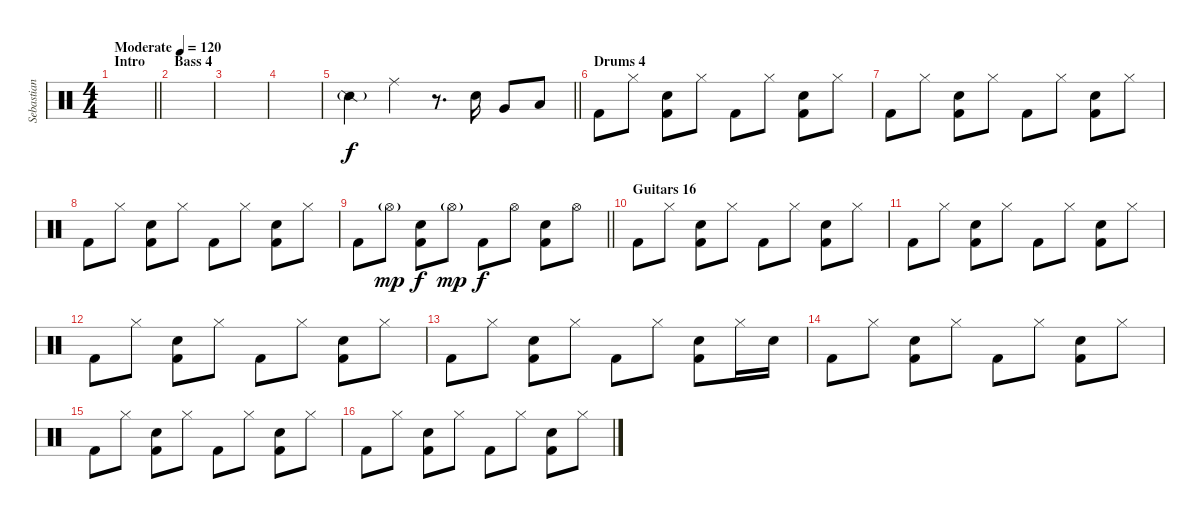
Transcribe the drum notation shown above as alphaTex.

\track ("Sebastian (Drums)" "Sebastian ") {instrument percussion}
\staff {score}
\articulation defaults
\ts (4 4)
\section ("" "Intro")
\tempo (120 "Moderate")
\clef neutral
\barLineRight lightlight
\ks c
|
\section ("" "Bass 4")
|
|
|
\barLineRight lightlight "Snare (side stick) 2"{g}.4 "Ride (middle)".4{dy f}
r.8{d} "Electric Snare (hit)".16 "Very Low Tom (hit)".8 "Low Floor Tom (hit)".8 |
\section ("" "Drums 4")
"Kick (hit) 2".8 "Hi-Hat (closed)".8 ("Electric Snare (hit)" "Kick (hit) 2").8 "Hi-Hat (closed)".8 "Kick (hit) 2".8 "Hi-Hat (closed)".8 ("Electric Snare (hit)" "Kick (hit) 2").8 "Hi-Hat (closed)".8 |
"Kick (hit) 2".8 "Hi-Hat (closed)".8 ("Electric Snare (hit)" "Kick (hit) 2").8 "Hi-Hat (closed)".8 "Kick (hit) 2".8 "Hi-Hat (closed)".8 ("Electric Snare (hit)" "Kick (hit) 2").8 "Hi-Hat (closed)".8 |
"Kick (hit) 2".8 "Hi-Hat (closed)".8 ("Electric Snare (hit)" "Kick (hit) 2").8 "Hi-Hat (closed)".8 "Kick (hit) 2".8 "Hi-Hat (closed)".8 ("Electric Snare (hit)" "Kick (hit) 2").8 "Hi-Hat (closed)".8 |
\barLineRight lightlight "Kick (hit) 2".8 "Hi-Hat (open)"{g}.8{dy mp}
("Electric Snare (hit)" "Kick (hit) 2").8{dy f} "Hi-Hat (open)"{g}.8{dy mp} "Kick (hit) 2".8{dy f} "Hi-Hat (open)".8 ("Electric Snare (hit)" "Kick (hit) 2").8 "Hi-Hat (open)".8 |
\section ("" "Guitars 16")
"Kick (hit) 2".8 "Hi-Hat (closed)".8 ("Electric Snare (hit)" "Kick (hit) 2").8 "Hi-Hat (closed)".8 "Kick (hit) 2".8 "Hi-Hat (closed)".8 ("Electric Snare (hit)" "Kick (hit) 2").8 "Hi-Hat (closed)".8 |
"Kick (hit) 2".8 "Hi-Hat (closed)".8 ("Electric Snare (hit)" "Kick (hit) 2").8 "Hi-Hat (closed)".8 "Kick (hit) 2".8 "Hi-Hat (closed)".8 ("Electric Snare (hit)" "Kick (hit) 2").8 "Hi-Hat (closed)".8 |
"Kick (hit) 2".8 "Hi-Hat (closed)".8 ("Electric Snare (hit)" "Kick (hit) 2").8 "Hi-Hat (closed)".8 "Kick (hit) 2".8 "Hi-Hat (closed)".8 ("Electric Snare (hit)" "Kick (hit) 2").8 "Hi-Hat (closed)".8 |
"Kick (hit) 2".8 "Hi-Hat (closed)".8 ("Electric Snare (hit)" "Kick (hit) 2").8 "Hi-Hat (closed)".8 "Kick (hit) 2".8 "Hi-Hat (closed)".8 ("Electric Snare (hit)" "Kick (hit) 2").8 "Hi-Hat (closed)".16 "Electric Snare (hit)".16 |
"Kick (hit) 2".8 "Hi-Hat (closed)".8 ("Electric Snare (hit)" "Kick (hit) 2").8 "Hi-Hat (closed)".8 "Kick (hit) 2".8 "Hi-Hat (closed)".8 ("Electric Snare (hit)" "Kick (hit) 2").8 "Hi-Hat (closed)".8 |
"Kick (hit) 2".8 "Hi-Hat (closed)".8 ("Electric Snare (hit)" "Kick (hit) 2").8 "Hi-Hat (closed)".8 "Kick (hit) 2".8 "Hi-Hat (closed)".8 ("Electric Snare (hit)" "Kick (hit) 2").8 "Hi-Hat (closed)".8 |
"Kick (hit) 2".8 "Hi-Hat (closed)".8 ("Electric Snare (hit)" "Kick (hit) 2").8 "Hi-Hat (closed)".8 "Kick (hit) 2".8 "Hi-Hat (closed)".8 ("Electric Snare (hit)" "Kick (hit) 2").8 "Hi-Hat (closed)".8
